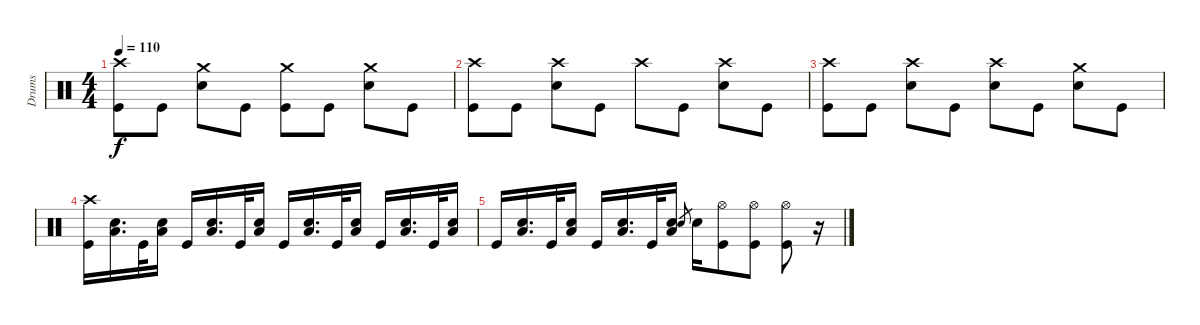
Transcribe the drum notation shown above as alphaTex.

\track ("Drums" "Drums") {instrument percussion}
\staff {score}
\articulation defaults
\ts (4 4)
\tempo 110
\clef neutral
\ks c
("Crash high (hit)" "Kick (hit)").8{dy f} "Kick (hit)".8 ("Crash medium (hit)" "Snare (hit) 2").8 "Kick (hit)".8 ("Crash medium (hit)" "Kick (hit)").8 "Kick (hit)".8 ("Crash medium (hit)" "Snare (hit) 2").8 "Kick (hit)".8 |
("Crash high (hit)" "Kick (hit)").8 "Kick (hit)".8 ("Crash high (hit)" "Snare (hit) 2").8 "Kick (hit)".8 "Crash high (hit)".8 "Kick (hit)".8 ("Crash high (hit)" "Snare (hit) 2").8 "Kick (hit)".8 |
("Crash high (hit)" "Kick (hit)").8 "Kick (hit)".8 ("Crash high (hit)" "Snare (hit) 2").8 "Kick (hit)".8 ("Crash high (hit)" "Snare (hit) 2").8 "Kick (hit)".8 ("Crash medium (hit)" "Snare (hit) 2").8 "Kick (hit)".8 |
("Crash high (hit)" "Kick (hit)").16 ("Low Floor Tom (hit)" "Snare (hit) 2").16{d} "Kick (hit)".32 ("Low Floor Tom (hit)" "Snare (hit) 2").16 "Kick (hit)".16 ("Low Floor Tom (hit)" "Snare (hit) 2").16{d} "Kick (hit)".32 ("Low Floor Tom (hit)" "Snare (hit) 2").16 "Kick (hit)".16 ("Low Floor Tom (hit)" "Snare (hit) 2").16{d} "Kick (hit)".32 ("Low Floor Tom (hit)" "Snare (hit) 2").16 "Kick (hit)".16 ("Low Floor Tom (hit)" "Snare (hit) 2").16{d} "Kick (hit)".32 ("Low Floor Tom (hit)" "Snare (hit) 2").16 |
"Kick (hit)".16 ("Low Floor Tom (hit)" "Snare (hit) 2").16{d} "Kick (hit)".32 ("Low Floor Tom (hit)" "Snare (hit) 2").16 "Kick (hit)".16 ("Low Floor Tom (hit)" "Snare (hit) 2").16{d} "Kick (hit)".32 ("Low Floor Tom (hit)" "Snare (hit) 2").16 "Snare (hit) 2".8{gr} "Snare (hit) 2".16 ("Hi-Hat (open)" "Kick (hit)").8 ("Hi-Hat (open)" "Kick (hit)").8 ("Hi-Hat (open)" "Kick (hit)").8 r.16{volume 1}
